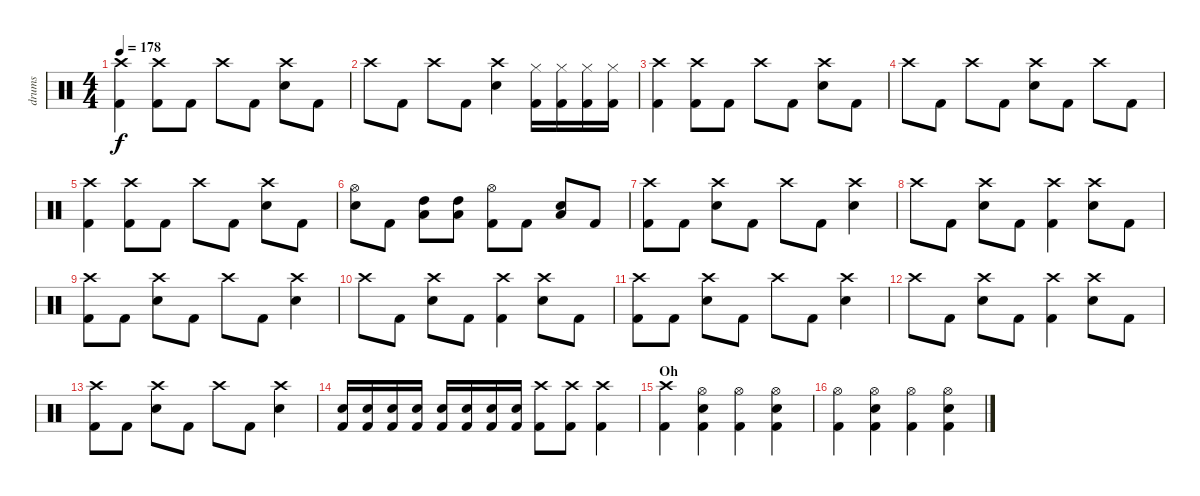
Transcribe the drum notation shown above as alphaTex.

\track ("drums" "drums") {instrument percussion}
\staff {score}
\articulation defaults
\ts (4 4)
\tempo 178
\clef neutral
\ks c
("Crash high (hit)" "Kick (hit) 2").4{dy f} ("Crash high (hit)" "Kick (hit) 2").8 "Kick (hit) 2".8 "Crash high (hit)".8 "Kick (hit) 2".8 ("Crash high (hit)" "Electric Snare (hit)").8 "Kick (hit) 2".8 |
"Crash high (hit)".8 "Kick (hit) 2".8 "Crash high (hit)".8 "Kick (hit) 2".8 ("Crash high (hit)" "Electric Snare (hit)").4 ("Hi-Hat (closed)" "Kick (hit) 2").16 ("Hi-Hat (closed)" "Kick (hit) 2").16 ("Hi-Hat (closed)" "Kick (hit) 2").16 ("Hi-Hat (closed)" "Kick (hit) 2").16 |
("Crash high (hit)" "Kick (hit) 2").4 ("Crash high (hit)" "Kick (hit) 2").8 "Kick (hit) 2".8 "Crash high (hit)".8 "Kick (hit) 2".8 ("Crash high (hit)" "Electric Snare (hit)").8 "Kick (hit) 2".8 |
"Crash high (hit)".8 "Kick (hit) 2".8 "Crash high (hit)".8 "Kick (hit) 2".8 ("Crash high (hit)" "Electric Snare (hit)").8 "Kick (hit) 2".8 "Crash high (hit)".8 "Kick (hit) 2".8 |
("Crash high (hit)" "Kick (hit) 2").4 ("Crash high (hit)" "Kick (hit) 2").8 "Kick (hit) 2".8 "Crash high (hit)".8 "Kick (hit) 2".8 ("Crash high (hit)" "Electric Snare (hit)").8 "Kick (hit) 2".8 |
("Hi-Hat (open)" "Electric Snare (hit)").8 "Kick (hit) 2".8 ("High Tom (hit)" "Low Tom (hit)").8 ("High Tom (hit)" "Low Tom (hit)").8 ("Hi-Hat (open)" "Kick (hit) 2").8 "Kick (hit) 2".8 ("Low Tom (hit)" "Electric Snare (hit)").8 "Kick (hit) 2".8 |
("Crash high (hit)" "Kick (hit) 2").8 "Kick (hit) 2".8 ("Crash high (hit)" "Electric Snare (hit)").8 "Kick (hit) 2".8 "Crash high (hit)".8 "Kick (hit) 2".8 ("Crash high (hit)" "Electric Snare (hit)").4 |
"Crash high (hit)".8 "Kick (hit) 2".8 ("Crash high (hit)" "Electric Snare (hit)").8 "Kick (hit) 2".8 ("Crash high (hit)" "Kick (hit) 2").4 ("Crash high (hit)" "Electric Snare (hit)").8 "Kick (hit) 2".8 |
("Crash high (hit)" "Kick (hit) 2").8 "Kick (hit) 2".8 ("Crash high (hit)" "Electric Snare (hit)").8 "Kick (hit) 2".8 "Crash high (hit)".8 "Kick (hit) 2".8 ("Crash high (hit)" "Electric Snare (hit)").4 |
"Crash high (hit)".8 "Kick (hit) 2".8 ("Crash high (hit)" "Electric Snare (hit)").8 "Kick (hit) 2".8 ("Crash high (hit)" "Kick (hit) 2").4 ("Crash high (hit)" "Electric Snare (hit)").8 "Kick (hit) 2".8 |
("Crash high (hit)" "Kick (hit) 2").8 "Kick (hit) 2".8 ("Crash high (hit)" "Electric Snare (hit)").8 "Kick (hit) 2".8 "Crash high (hit)".8 "Kick (hit) 2".8 ("Crash high (hit)" "Electric Snare (hit)").4 |
"Crash high (hit)".8 "Kick (hit) 2".8 ("Crash high (hit)" "Electric Snare (hit)").8 "Kick (hit) 2".8 ("Crash high (hit)" "Kick (hit) 2").4 ("Crash high (hit)" "Electric Snare (hit)").8 "Kick (hit) 2".8 |
("Crash high (hit)" "Kick (hit) 2").8 "Kick (hit) 2".8 ("Crash high (hit)" "Electric Snare (hit)").8 "Kick (hit) 2".8 "Crash high (hit)".8 "Kick (hit) 2".8 ("Crash high (hit)" "Electric Snare (hit)").4 |
("Electric Snare (hit)" "Kick (hit) 2").16 ("Electric Snare (hit)" "Kick (hit) 2").16 ("Electric Snare (hit)" "Kick (hit) 2").16 ("Electric Snare (hit)" "Kick (hit) 2").16 ("Electric Snare (hit)" "Kick (hit) 2").16 ("Electric Snare (hit)" "Kick (hit) 2").16 ("Electric Snare (hit)" "Kick (hit) 2").16 ("Electric Snare (hit)" "Kick (hit) 2").16 ("Crash high (hit)" "Kick (hit) 2").8 ("Crash high (hit)" "Kick (hit) 2").8 ("Crash high (hit)" "Kick (hit) 2").4 |
\section ("" "Oh")
("Crash high (hit)" "Kick (hit) 2").4 ("Hi-Hat (open)" "Electric Snare (hit)" "Kick (hit) 2").4 ("Hi-Hat (open)" "Kick (hit) 2").4 ("Hi-Hat (open)" "Electric Snare (hit)" "Kick (hit) 2").4 |
("Hi-Hat (open)" "Kick (hit) 2").4 ("Hi-Hat (open)" "Electric Snare (hit)" "Kick (hit) 2").4 ("Hi-Hat (open)" "Kick (hit) 2").4 ("Hi-Hat (open)" "Electric Snare (hit)" "Kick (hit) 2").4
